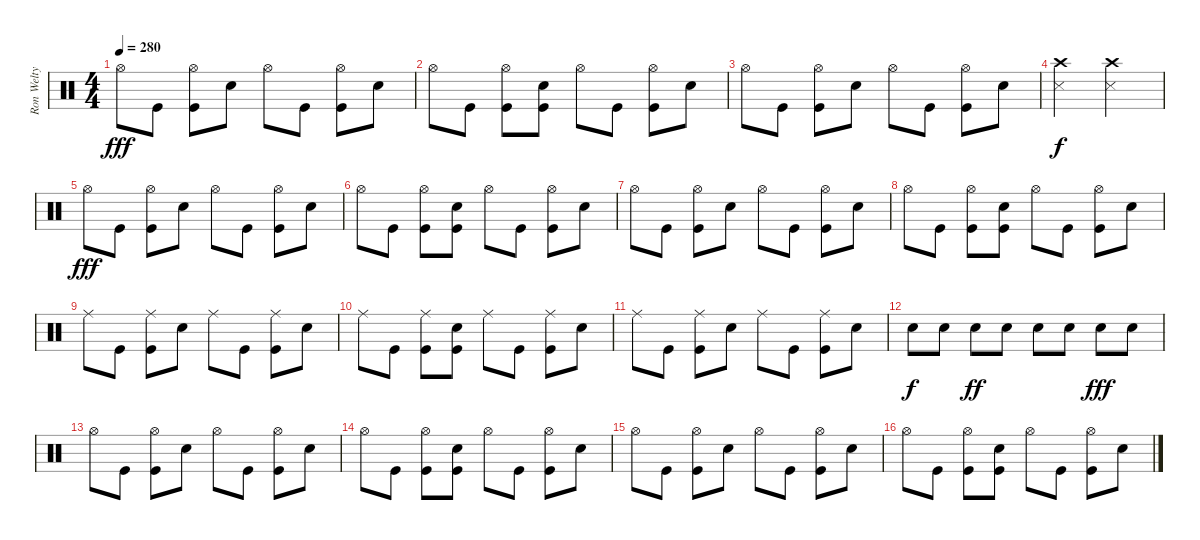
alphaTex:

\track ("Ron Welty" "Ron Welty") {instrument percussion}
\staff {score}
\articulation defaults
\ts (4 4)
\tempo 280
\clef neutral
\ks c "Hi-Hat (open)".8{dy fff} "Kick (hit)".8
("Hi-Hat (open)" "Kick (hit)").8 "Snare (hit) 2".8 "Hi-Hat (open)".8 "Kick (hit)".8 ("Hi-Hat (open)" "Kick (hit)").8 "Snare (hit) 2".8 |
"Hi-Hat (open)".8 "Kick (hit)".8 ("Hi-Hat (open)" "Kick (hit)").8 ("Snare (hit) 2" "Kick (hit)").8 "Hi-Hat (open)".8 "Kick (hit)".8 ("Hi-Hat (open)" "Kick (hit)").8 "Snare (hit) 2".8 |
"Hi-Hat (open)".8 "Kick (hit)".8 ("Hi-Hat (open)" "Kick (hit)").8 "Snare (hit) 2".8 "Hi-Hat (open)".8 "Kick (hit)".8 ("Hi-Hat (open)" "Kick (hit)").8 "Snare (hit) 2".8 |
("Crash high (hit)" "Metronome (hit)").2{dy f} ("Crash high (hit)" "Metronome (hit)").2 |
"Hi-Hat (open)".8{dy fff} "Kick (hit)".8 ("Hi-Hat (open)" "Kick (hit)").8 "Snare (hit) 2".8 "Hi-Hat (open)".8 "Kick (hit)".8 ("Hi-Hat (open)" "Kick (hit)").8 "Snare (hit) 2".8 |
"Hi-Hat (open)".8 "Kick (hit)".8 ("Hi-Hat (open)" "Kick (hit)").8 ("Snare (hit) 2" "Kick (hit)").8 "Hi-Hat (open)".8 "Kick (hit)".8 ("Hi-Hat (open)" "Kick (hit)").8 "Snare (hit) 2".8 |
"Hi-Hat (open)".8 "Kick (hit)".8 ("Hi-Hat (open)" "Kick (hit)").8 "Snare (hit) 2".8 "Hi-Hat (open)".8 "Kick (hit)".8 ("Hi-Hat (open)" "Kick (hit)").8 "Snare (hit) 2".8 |
"Hi-Hat (open)".8 "Kick (hit)".8 ("Hi-Hat (open)" "Kick (hit)").8 ("Snare (hit) 2" "Kick (hit)").8 "Hi-Hat (open)".8 "Kick (hit)".8 ("Hi-Hat (open)" "Kick (hit)").8 "Snare (hit) 2".8 |
"Ride (middle)".8 "Kick (hit)".8 ("Ride (middle)" "Kick (hit)").8 "Snare (hit) 2".8 "Ride (middle)".8 "Kick (hit)".8 ("Ride (middle)" "Kick (hit)").8 "Snare (hit) 2".8 |
"Ride (middle)".8 "Kick (hit)".8 ("Ride (middle)" "Kick (hit)").8 ("Snare (hit) 2" "Kick (hit)").8 "Ride (middle)".8 "Kick (hit)".8 ("Ride (middle)" "Kick (hit)").8 "Snare (hit) 2".8 |
"Ride (middle)".8 "Kick (hit)".8 ("Ride (middle)" "Kick (hit)").8 "Snare (hit) 2".8 "Ride (middle)".8 "Kick (hit)".8 ("Ride (middle)" "Kick (hit)").8 "Snare (hit) 2".8 |
"Snare (hit) 2".8{dy f} "Snare (hit) 2".8 "Snare (hit) 2".8{dy ff} "Snare (hit) 2".8 "Snare (hit) 2".8 "Snare (hit) 2".8 "Snare (hit) 2".8{dy fff} "Snare (hit) 2".8 |
"Hi-Hat (open)".8 "Kick (hit)".8 ("Hi-Hat (open)" "Kick (hit)").8 "Snare (hit) 2".8 "Hi-Hat (open)".8 "Kick (hit)".8 ("Hi-Hat (open)" "Kick (hit)").8 "Snare (hit) 2".8 |
"Hi-Hat (open)".8 "Kick (hit)".8 ("Hi-Hat (open)" "Kick (hit)").8 ("Snare (hit) 2" "Kick (hit)").8 "Hi-Hat (open)".8 "Kick (hit)".8 ("Hi-Hat (open)" "Kick (hit)").8 "Snare (hit) 2".8 |
"Hi-Hat (open)".8 "Kick (hit)".8 ("Hi-Hat (open)" "Kick (hit)").8 "Snare (hit) 2".8 "Hi-Hat (open)".8 "Kick (hit)".8 ("Hi-Hat (open)" "Kick (hit)").8 "Snare (hit) 2".8 |
"Hi-Hat (open)".8 "Kick (hit)".8 ("Hi-Hat (open)" "Kick (hit)").8 ("Snare (hit) 2" "Kick (hit)").8 "Hi-Hat (open)".8 "Kick (hit)".8 ("Hi-Hat (open)" "Kick (hit)").8 "Snare (hit) 2".8
